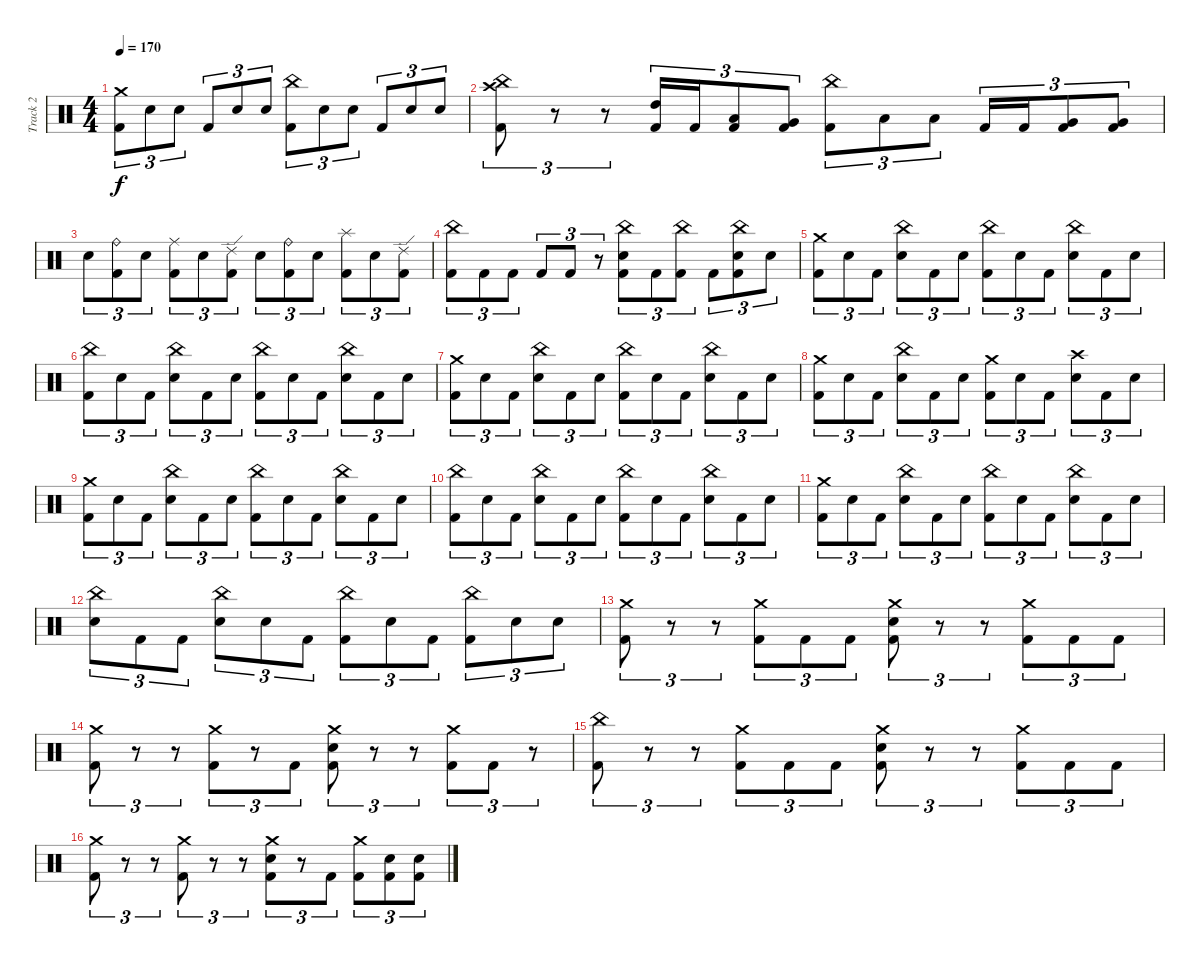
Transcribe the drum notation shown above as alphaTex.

\track ("Track 2" "Track 2") {instrument percussion}
\staff {score}
\articulation defaults
\ts (4 4)
\tempo 170
\clef neutral
\ks c
("Crash medium (hit)" "Kick (hit) 2").8{tu (3 2) dy f} "Electric Snare (hit)".8{tu (3 2)} "Electric Snare (hit)".8{tu (3 2)} "Kick (hit) 2".8{tu (3 2)} "Electric Snare (hit)".8{tu (3 2)} "Electric Snare (hit)".8{tu (3 2)} ("China (hit)" "Kick (hit) 2").8{tu (3 2)} "Electric Snare (hit)".8{tu (3 2)} "Electric Snare (hit)".8{tu (3 2)} "Kick (hit) 2".8{tu (3 2)} "Electric Snare (hit)".8{tu (3 2)} "Electric Snare (hit)".8{tu (3 2)} |
("China (hit)" "Crash high (hit)" "Kick (hit) 2").8{tu (3 2)} r.8{tu (3 2)} r.8{tu (3 2)} ("High Tom (hit)" "Kick (hit) 2").16{tu (3 2)} "Kick (hit) 2".16{tu (3 2)} ("Low Tom (hit)" "Kick (hit) 2").8{tu (3 2)} ("Very Low Tom (hit)" "Kick (hit) 2").8{tu (3 2)} ("China (hit)" "Kick (hit) 2").8{tu (3 2)} "Low Floor Tom (hit)".8{tu (3 2)} "Low Floor Tom (hit)".8{tu (3 2)} "Kick (hit) 2".16{tu (3 2)} "Kick (hit) 2".16{tu (3 2)} ("Very Low Tom (hit)" "Kick (hit) 2").8{tu (3 2)} ("Very Low Tom (hit)" "Kick (hit) 2").8{tu (3 2)} |
"Electric Snare (hit)".8{tu (3 2)} ("Ride (bell)" "Kick (hit) 2").8{tu (3 2)} "Electric Snare (hit)".8{tu (3 2)} ("Ride (middle)" "Kick (hit) 2").8{tu (3 2)} "Electric Snare (hit)".8{tu (3 2)} ("Ride (edge) 2" "Kick (hit) 2").8{tu (3 2)} "Electric Snare (hit)".8{tu (3 2)} ("Ride (bell)" "Kick (hit) 2").8{tu (3 2)} "Electric Snare (hit)".8{tu (3 2)} ("Splash (hit)" "Kick (hit) 2").8{tu (3 2)} "Electric Snare (hit)".8{tu (3 2)} ("Ride (edge) 2" "Kick (hit) 2").8{tu (3 2)} |
("China (hit)" "Kick (hit) 2").8{tu (3 2)} "Kick (hit) 2".8{tu (3 2)} "Kick (hit) 2".8{tu (3 2)} "Kick (hit) 2".8{tu (3 2)} "Kick (hit) 2".8{tu (3 2)} r.8{tu (3 2)} ("China (hit)" "Electric Snare (hit)" "Kick (hit) 2").8{tu (3 2)} "Kick (hit) 2".8{tu (3 2)} ("China (hit)" "Kick (hit) 2").8{tu (3 2)} "Kick (hit) 2".8{tu (3 2)} ("China (hit)" "Electric Snare (hit)" "Kick (hit) 2").8{tu (3 2)} "Electric Snare (hit)".8{tu (3 2)} |
("Crash medium (hit)" "Kick (hit) 2").8{tu (3 2)} "Electric Snare (hit)".8{tu (3 2)} "Kick (hit) 2".8{tu (3 2)} ("China (hit)" "Electric Snare (hit)").8{tu (3 2)} "Kick (hit) 2".8{tu (3 2)} "Electric Snare (hit)".8{tu (3 2)} ("China (hit)" "Kick (hit) 2").8{tu (3 2)} "Electric Snare (hit)".8{tu (3 2)} "Kick (hit) 2".8{tu (3 2)} ("China (hit)" "Electric Snare (hit)").8{tu (3 2)} "Kick (hit) 2".8{tu (3 2)} "Electric Snare (hit)".8{tu (3 2)} |
("China (hit)" "Kick (hit) 2").8{tu (3 2)} "Electric Snare (hit)".8{tu (3 2)} "Kick (hit) 2".8{tu (3 2)} ("China (hit)" "Electric Snare (hit)").8{tu (3 2)} "Kick (hit) 2".8{tu (3 2)} "Electric Snare (hit)".8{tu (3 2)} ("China (hit)" "Kick (hit) 2").8{tu (3 2)} "Electric Snare (hit)".8{tu (3 2)} "Kick (hit) 2".8{tu (3 2)} ("China (hit)" "Electric Snare (hit)").8{tu (3 2)} "Kick (hit) 2".8{tu (3 2)} "Electric Snare (hit)".8{tu (3 2)} |
("Crash medium (hit)" "Kick (hit) 2").8{tu (3 2)} "Electric Snare (hit)".8{tu (3 2)} "Kick (hit) 2".8{tu (3 2)} ("China (hit)" "Electric Snare (hit)").8{tu (3 2)} "Kick (hit) 2".8{tu (3 2)} "Electric Snare (hit)".8{tu (3 2)} ("China (hit)" "Kick (hit) 2").8{tu (3 2)} "Electric Snare (hit)".8{tu (3 2)} "Kick (hit) 2".8{tu (3 2)} ("China (hit)" "Electric Snare (hit)").8{tu (3 2)} "Kick (hit) 2".8{tu (3 2)} "Electric Snare (hit)".8{tu (3 2)} |
("Crash medium (hit)" "Kick (hit) 2").8{tu (3 2)} "Electric Snare (hit)".8{tu (3 2)} "Kick (hit) 2".8{tu (3 2)} ("China (hit)" "Electric Snare (hit)").8{tu (3 2)} "Kick (hit) 2".8{tu (3 2)} "Electric Snare (hit)".8{tu (3 2)} ("Crash medium (hit)" "Kick (hit) 2").8{tu (3 2)} "Electric Snare (hit)".8{tu (3 2)} "Kick (hit) 2".8{tu (3 2)} ("Crash high (hit)" "Electric Snare (hit)").8{tu (3 2)} "Kick (hit) 2".8{tu (3 2)} "Electric Snare (hit)".8{tu (3 2)} |
("Crash medium (hit)" "Kick (hit) 2").8{tu (3 2)} "Electric Snare (hit)".8{tu (3 2)} "Kick (hit) 2".8{tu (3 2)} ("China (hit)" "Electric Snare (hit)").8{tu (3 2)} "Kick (hit) 2".8{tu (3 2)} "Electric Snare (hit)".8{tu (3 2)} ("China (hit)" "Kick (hit) 2").8{tu (3 2)} "Electric Snare (hit)".8{tu (3 2)} "Kick (hit) 2".8{tu (3 2)} ("China (hit)" "Electric Snare (hit)").8{tu (3 2)} "Kick (hit) 2".8{tu (3 2)} "Electric Snare (hit)".8{tu (3 2)} |
("China (hit)" "Kick (hit) 2").8{tu (3 2)} "Electric Snare (hit)".8{tu (3 2)} "Kick (hit) 2".8{tu (3 2)} ("China (hit)" "Electric Snare (hit)").8{tu (3 2)} "Kick (hit) 2".8{tu (3 2)} "Electric Snare (hit)".8{tu (3 2)} ("China (hit)" "Kick (hit) 2").8{tu (3 2)} "Electric Snare (hit)".8{tu (3 2)} "Kick (hit) 2".8{tu (3 2)} ("China (hit)" "Electric Snare (hit)").8{tu (3 2)} "Kick (hit) 2".8{tu (3 2)} "Electric Snare (hit)".8{tu (3 2)} |
("Crash medium (hit)" "Kick (hit) 2").8{tu (3 2)} "Electric Snare (hit)".8{tu (3 2)} "Kick (hit) 2".8{tu (3 2)} ("China (hit)" "Electric Snare (hit)").8{tu (3 2)} "Kick (hit) 2".8{tu (3 2)} "Electric Snare (hit)".8{tu (3 2)} ("China (hit)" "Kick (hit) 2").8{tu (3 2)} "Electric Snare (hit)".8{tu (3 2)} "Kick (hit) 2".8{tu (3 2)} ("China (hit)" "Electric Snare (hit)").8{tu (3 2)} "Kick (hit) 2".8{tu (3 2)} "Electric Snare (hit)".8{tu (3 2)} |
("China (hit)" "Electric Snare (hit)").8{tu (3 2)} "Kick (hit) 2".8{tu (3 2)} "Kick (hit) 2".8{tu (3 2)} ("China (hit)" "Electric Snare (hit)").8{tu (3 2)} "Electric Snare (hit)".8{tu (3 2)} "Kick (hit) 2".8{tu (3 2)} ("China (hit)" "Kick (hit) 2").8{tu (3 2)} "Electric Snare (hit)".8{tu (3 2)} "Kick (hit) 2".8{tu (3 2)} ("China (hit)" "Kick (hit) 2").8{tu (3 2)} "Electric Snare (hit)".8{tu (3 2)} "Electric Snare (hit)".8{tu (3 2)} |
("Crash medium (hit)" "Kick (hit) 2").8{tu (3 2)} r.8{tu (3 2)} r.8{tu (3 2)} ("Crash medium (hit)" "Kick (hit) 2").8{tu (3 2)} "Kick (hit) 2".8{tu (3 2)} "Kick (hit) 2".8{tu (3 2)} ("Crash medium (hit)" "Electric Snare (hit)" "Kick (hit) 2").8{tu (3 2)} r.8{tu (3 2)} r.8{tu (3 2)} ("Crash medium (hit)" "Kick (hit) 2").8{tu (3 2)} "Kick (hit) 2".8{tu (3 2)} "Kick (hit) 2".8{tu (3 2)} |
("Crash medium (hit)" "Kick (hit) 2").8{tu (3 2)} r.8{tu (3 2)} r.8{tu (3 2)} ("Crash medium (hit)" "Kick (hit) 2").8{tu (3 2)} r.8{tu (3 2)} "Kick (hit) 2".8{tu (3 2)} ("Crash medium (hit)" "Electric Snare (hit)" "Kick (hit) 2").8{tu (3 2)} r.8{tu (3 2)} r.8{tu (3 2)} ("Crash medium (hit)" "Kick (hit) 2").8{tu (3 2)} "Kick (hit) 2".8{tu (3 2)} r.8{tu (3 2)} |
("China (hit)" "Kick (hit) 2").8{tu (3 2)} r.8{tu (3 2)} r.8{tu (3 2)} ("Crash medium (hit)" "Kick (hit) 2").8{tu (3 2)} "Kick (hit) 2".8{tu (3 2)} "Kick (hit) 2".8{tu (3 2)} ("Crash medium (hit)" "Electric Snare (hit)" "Kick (hit) 2").8{tu (3 2)} r.8{tu (3 2)} r.8{tu (3 2)} ("Crash medium (hit)" "Kick (hit) 2").8{tu (3 2)} "Kick (hit) 2".8{tu (3 2)} "Kick (hit) 2".8{tu (3 2)} |
("Crash medium (hit)" "Kick (hit) 2").8{tu (3 2)} r.8{tu (3 2)} r.8{tu (3 2)} ("Crash medium (hit)" "Kick (hit) 2").8{tu (3 2)} r.8{tu (3 2)} r.8{tu (3 2)} ("Crash medium (hit)" "Electric Snare (hit)" "Kick (hit) 2").8{tu (3 2)} r.8{tu (3 2)} "Kick (hit) 2".8{tu (3 2)} ("Crash medium (hit)" "Kick (hit) 2").8{tu (3 2)} ("Electric Snare (hit)" "Kick (hit) 2").8{tu (3 2)} ("Electric Snare (hit)" "Kick (hit) 2").8{tu (3 2)}
